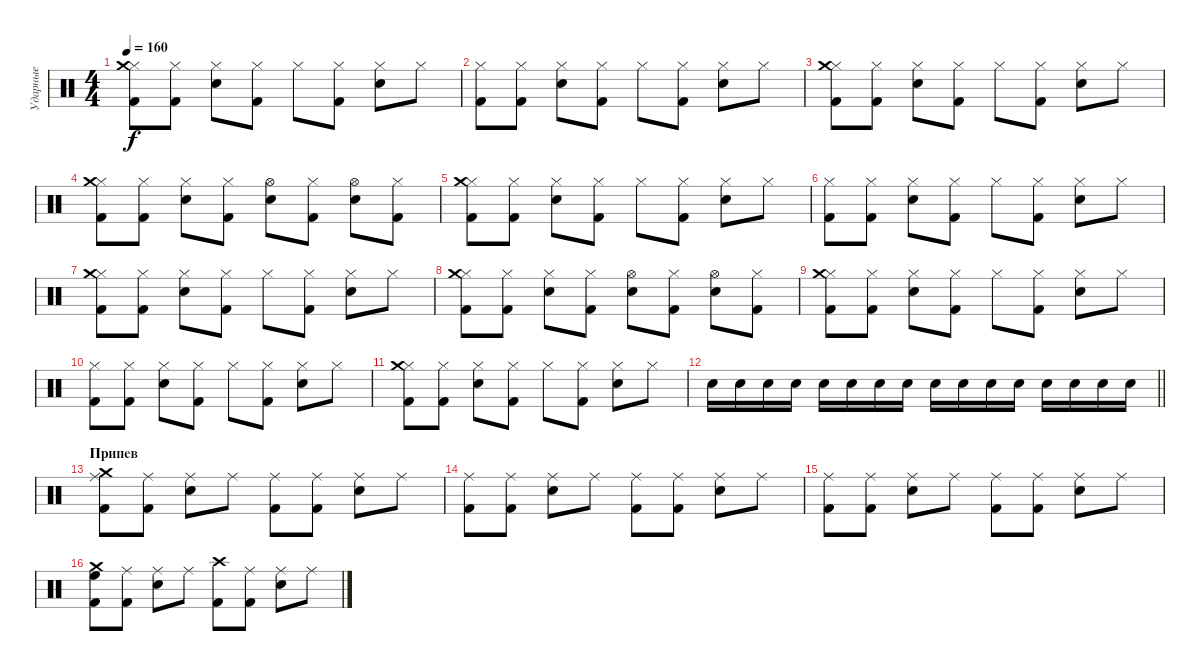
\track ("Ударные" "Ударные") {instrument percussion}
\staff {score}
\articulation defaults
\ts (4 4)
\tempo 160
\clef neutral
\ks c
("Kick (hit) 2" "Hi-Hat (closed)" "Crash medium (hit)").8{dy f} ("Kick (hit) 2" "Hi-Hat (closed)").8 ("Snare (hit) 2" "Hi-Hat (closed)").8 ("Kick (hit) 2" "Hi-Hat (closed)").8 "Hi-Hat (closed)".8 ("Kick (hit) 2" "Hi-Hat (closed)").8 ("Snare (hit) 2" "Hi-Hat (closed)").8 "Hi-Hat (closed)".8 |
("Kick (hit) 2" "Hi-Hat (closed)").8 ("Kick (hit) 2" "Hi-Hat (closed)").8 ("Snare (hit) 2" "Hi-Hat (closed)").8 ("Kick (hit) 2" "Hi-Hat (closed)").8 "Hi-Hat (closed)".8 ("Kick (hit) 2" "Hi-Hat (closed)").8 ("Snare (hit) 2" "Hi-Hat (closed)").8 "Hi-Hat (closed)".8 |
("Kick (hit) 2" "Hi-Hat (closed)" "Crash medium (hit)").8 ("Kick (hit) 2" "Hi-Hat (closed)").8 ("Snare (hit) 2" "Hi-Hat (closed)").8 ("Kick (hit) 2" "Hi-Hat (closed)").8 "Hi-Hat (closed)".8 ("Kick (hit) 2" "Hi-Hat (closed)").8 ("Snare (hit) 2" "Hi-Hat (closed)").8 "Hi-Hat (closed)".8 |
("Kick (hit) 2" "Hi-Hat (closed)" "Crash medium (hit)").8 ("Kick (hit) 2" "Hi-Hat (closed)").8 ("Snare (hit) 2" "Hi-Hat (closed)").8 ("Kick (hit) 2" "Hi-Hat (closed)").8 ("Snare (hit) 2" "Hi-Hat (open)").8 ("Kick (hit) 2" "Hi-Hat (closed)").8 ("Snare (hit) 2" "Hi-Hat (open)").8 ("Kick (hit) 2" "Hi-Hat (closed)").8 |
("Kick (hit) 2" "Hi-Hat (closed)" "Crash medium (hit)").8 ("Kick (hit) 2" "Hi-Hat (closed)").8 ("Snare (hit) 2" "Hi-Hat (closed)").8 ("Kick (hit) 2" "Hi-Hat (closed)").8 "Hi-Hat (closed)".8 ("Kick (hit) 2" "Hi-Hat (closed)").8 ("Snare (hit) 2" "Hi-Hat (closed)").8 "Hi-Hat (closed)".8 |
("Kick (hit) 2" "Hi-Hat (closed)").8 ("Kick (hit) 2" "Hi-Hat (closed)").8 ("Snare (hit) 2" "Hi-Hat (closed)").8 ("Kick (hit) 2" "Hi-Hat (closed)").8 "Hi-Hat (closed)".8 ("Kick (hit) 2" "Hi-Hat (closed)").8 ("Snare (hit) 2" "Hi-Hat (closed)").8 "Hi-Hat (closed)".8 |
("Kick (hit) 2" "Hi-Hat (closed)" "Crash medium (hit)").8 ("Kick (hit) 2" "Hi-Hat (closed)").8 ("Snare (hit) 2" "Hi-Hat (closed)").8 ("Kick (hit) 2" "Hi-Hat (closed)").8 "Hi-Hat (closed)".8 ("Kick (hit) 2" "Hi-Hat (closed)").8 ("Snare (hit) 2" "Hi-Hat (closed)").8 "Hi-Hat (closed)".8 |
("Kick (hit) 2" "Hi-Hat (closed)" "Crash medium (hit)").8 ("Kick (hit) 2" "Hi-Hat (closed)").8 ("Snare (hit) 2" "Hi-Hat (closed)").8 ("Kick (hit) 2" "Hi-Hat (closed)").8 ("Snare (hit) 2" "Hi-Hat (open)").8 ("Kick (hit) 2" "Hi-Hat (closed)").8 ("Snare (hit) 2" "Hi-Hat (open)").8 ("Kick (hit) 2" "Hi-Hat (closed)").8 |
("Kick (hit) 2" "Hi-Hat (closed)" "Crash medium (hit)").8 ("Kick (hit) 2" "Hi-Hat (closed)").8 ("Snare (hit) 2" "Hi-Hat (closed)").8 ("Kick (hit) 2" "Hi-Hat (closed)").8 "Hi-Hat (closed)".8 ("Kick (hit) 2" "Hi-Hat (closed)").8 ("Snare (hit) 2" "Hi-Hat (closed)").8 "Hi-Hat (closed)".8 |
("Kick (hit) 2" "Hi-Hat (closed)").8 ("Kick (hit) 2" "Hi-Hat (closed)").8 ("Snare (hit) 2" "Hi-Hat (closed)").8 ("Kick (hit) 2" "Hi-Hat (closed)").8 "Hi-Hat (closed)".8 ("Kick (hit) 2" "Hi-Hat (closed)").8 ("Snare (hit) 2" "Hi-Hat (closed)").8 "Hi-Hat (closed)".8 |
("Kick (hit) 2" "Hi-Hat (closed)" "Crash medium (hit)").8 ("Kick (hit) 2" "Hi-Hat (closed)").8 ("Snare (hit) 2" "Hi-Hat (closed)").8 ("Kick (hit) 2" "Hi-Hat (closed)").8 "Hi-Hat (closed)".8 ("Kick (hit) 2" "Hi-Hat (closed)").8 ("Snare (hit) 2" "Hi-Hat (closed)").8 "Hi-Hat (closed)".8 |
\barLineRight lightlight "Snare (hit) 2".16 "Snare (hit) 2".16 "Snare (hit) 2".16 "Snare (hit) 2".16 "Snare (hit) 2".16 "Snare (hit) 2".16 "Snare (hit) 2".16 "Snare (hit) 2".16 "Snare (hit) 2".16 "Snare (hit) 2".16 "Snare (hit) 2".16 "Snare (hit) 2".16 "Snare (hit) 2".16 "Snare (hit) 2".16 "Snare (hit) 2".16 "Snare (hit) 2".16
|
\section ("" "Припев")
("Crash medium (hit)" "Ride (middle)" "Kick (hit) 2").8 ("Ride (middle)" "Kick (hit) 2").8 ("Ride (middle)" "Snare (hit) 2").8 "Ride (middle)".8 ("Ride (middle)" "Kick (hit) 2").8 ("Ride (middle)" "Kick (hit) 2").8 ("Ride (middle)" "Snare (hit) 2").8 "Ride (middle)".8 |
("Ride (middle)" "Kick (hit) 2").8 ("Ride (middle)" "Kick (hit) 2").8 ("Ride (middle)" "Snare (hit) 2").8 "Ride (middle)".8 ("Ride (middle)" "Kick (hit) 2").8 ("Ride (middle)" "Kick (hit) 2").8 ("Ride (middle)" "Snare (hit) 2").8 "Ride (middle)".8 |
("Ride (middle)" "Kick (hit) 2").8 ("Ride (middle)" "Kick (hit) 2").8 ("Ride (middle)" "Snare (hit) 2").8 "Ride (middle)".8 ("Ride (middle)" "Kick (hit) 2").8 ("Ride (middle)" "Kick (hit) 2").8 ("Ride (middle)" "Snare (hit) 2").8 "Ride (middle)".8 |
("Crash medium (hit)" "High Floor Tom (hit)" "Kick (hit) 2").8 ("Ride (middle)" "Kick (hit) 2").8 ("Ride (middle)" "Snare (hit) 2").8 "Ride (middle)".8 ("Crash high (hit)" "Kick (hit) 2").8 ("Ride (middle)" "Kick (hit) 2").8 ("Ride (middle)" "Snare (hit) 2").8 "Ride (middle)".8
